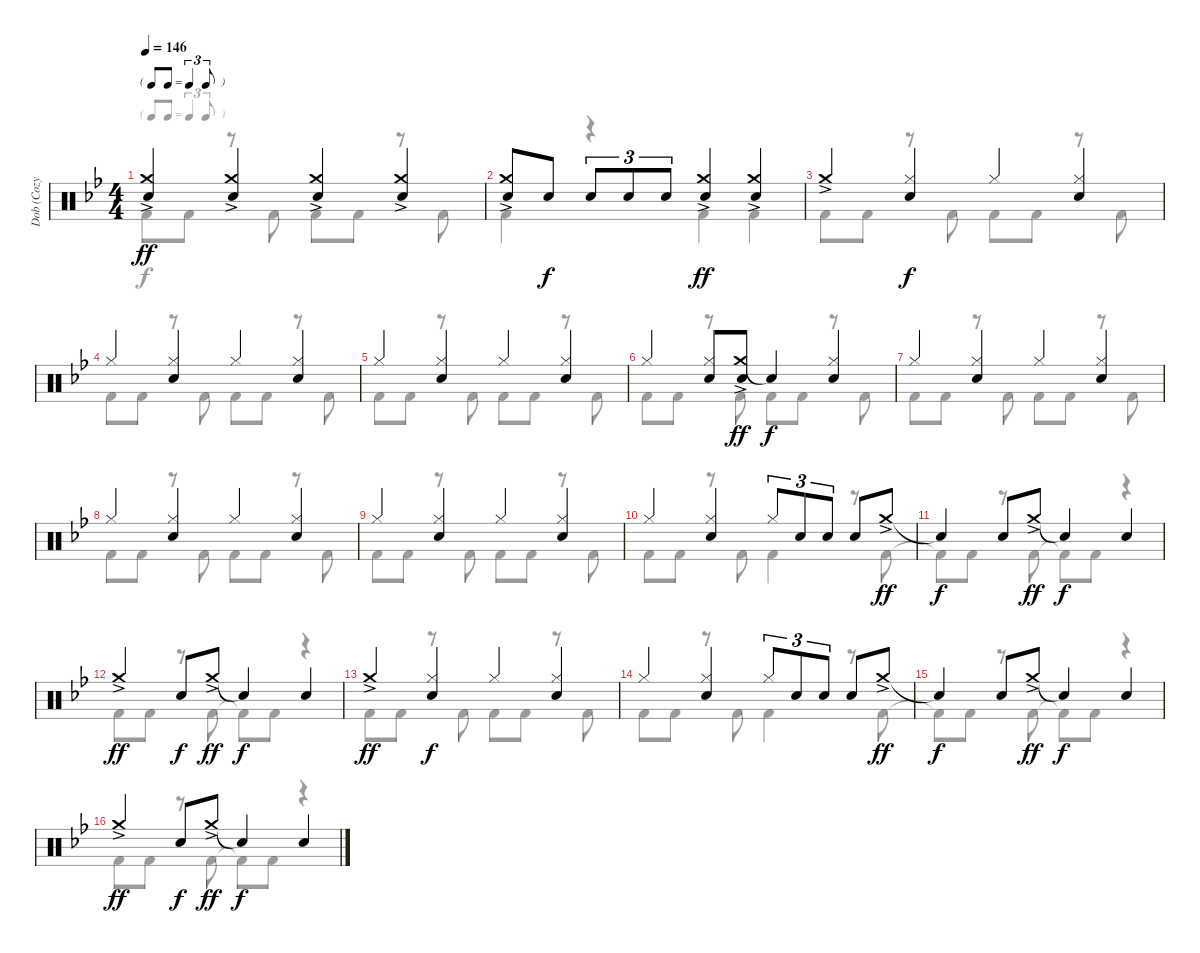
\track ("Dob (Cozy Powell)" "Dob (Cozy ") {instrument percussion}
\staff {score}
\articulation defaults
\voice
\ts (4 4)
\tf triplet8th
\tempo 146
\clef neutral
\ks bb
("Crash medium (hit)"{ac} "Electric Snare (hit)").4{dy ff} ("Crash medium (hit)"{ac} "Electric Snare (hit)").4 ("Crash medium (hit)"{ac} "Electric Snare (hit)").4 ("Crash medium (hit)"{ac} "Electric Snare (hit)").4 |
("Crash medium (hit)"{ac} "Electric Snare (hit)").8 "Electric Snare (hit)".8{dy f} "Electric Snare (hit)".8{tu (3 2)} "Electric Snare (hit)".8{tu (3 2)} "Electric Snare (hit)".8{tu (3 2)} ("Crash medium (hit)"{ac} "Electric Snare (hit)").4{dy ff} ("Crash medium (hit)"{ac} "Electric Snare (hit)").4 |
"Crash medium (hit)"{ac}.4 ("Hi-Hat (closed)" "Electric Snare (hit)").4{dy f} "Hi-Hat (closed)".4 ("Hi-Hat (closed)" "Electric Snare (hit)").4 |
"Hi-Hat (closed)".4 ("Hi-Hat (closed)" "Electric Snare (hit)").4 "Hi-Hat (closed)".4 ("Hi-Hat (closed)" "Electric Snare (hit)").4 |
"Hi-Hat (closed)".4 ("Hi-Hat (closed)" "Electric Snare (hit)").4 "Hi-Hat (closed)".4 ("Hi-Hat (closed)" "Electric Snare (hit)").4 |
"Hi-Hat (closed)".4 ("Hi-Hat (closed)" "Electric Snare (hit)").8 ("Crash medium (hit)"{ac} "Electric Snare (hit)").8{dy ff} "Snare (hit)"{t}.4{dy f} ("Hi-Hat (closed)" "Electric Snare (hit)").4 |
"Hi-Hat (closed)".4 ("Hi-Hat (closed)" "Electric Snare (hit)").4 "Hi-Hat (closed)".4 ("Hi-Hat (closed)" "Electric Snare (hit)").4 |
"Hi-Hat (closed)".4 ("Hi-Hat (closed)" "Electric Snare (hit)").4 "Hi-Hat (closed)".4 ("Hi-Hat (closed)" "Electric Snare (hit)").4 |
"Hi-Hat (closed)".4 ("Hi-Hat (closed)" "Electric Snare (hit)").4 "Hi-Hat (closed)".4 ("Hi-Hat (closed)" "Electric Snare (hit)").4 |
"Hi-Hat (closed)".4 ("Hi-Hat (closed)" "Electric Snare (hit)").4 "Hi-Hat (closed)".8{tu (3 2)} "Electric Snare (hit)".8{tu (3 2)} "Electric Snare (hit)".8{tu (3 2)} "Electric Snare (hit)".8 "Crash medium (hit)"{ac}.8{dy ff} |
"Snare (hit)"{t}.4{dy f} "Electric Snare (hit)".8 "Crash medium (hit)"{ac}.8{dy ff} "Snare (hit)"{t}.4{dy f} "Electric Snare (hit)".4 |
"Crash medium (hit)"{ac}.4{dy ff} "Electric Snare (hit)".8{dy f} "Crash medium (hit)"{ac}.8{dy ff} "Snare (hit)"{t}.4{dy f} "Electric Snare (hit)".4 |
"Crash medium (hit)"{ac}.4{dy ff} ("Hi-Hat (closed)" "Electric Snare (hit)").4{dy f} "Hi-Hat (closed)".4 ("Hi-Hat (closed)" "Electric Snare (hit)").4 |
"Hi-Hat (closed)".4 ("Hi-Hat (closed)" "Electric Snare (hit)").4 "Hi-Hat (closed)".8{tu (3 2)} "Electric Snare (hit)".8{tu (3 2)} "Electric Snare (hit)".8{tu (3 2)} "Electric Snare (hit)".8 "Crash medium (hit)"{ac}.8{dy ff} |
"Snare (hit)"{t}.4{dy f} "Electric Snare (hit)".8 "Crash medium (hit)"{ac}.8{dy ff} "Snare (hit)"{t}.4{dy f} "Electric Snare (hit)".4 |
"Crash medium (hit)"{ac}.4{dy ff} "Electric Snare (hit)".8{dy f} "Crash medium (hit)"{ac}.8{dy ff} "Snare (hit)"{t}.4{dy f} "Electric Snare (hit)".4
\voice
\clef neutral
\ottava regular
\simile none
\ks bb "Kick (hit) 2".8{dy f} "Kick (hit) 2".8
r.8 "Kick (hit) 2".8 "Kick (hit) 2".8 "Kick (hit) 2".8 r.8 "Kick (hit) 2".8 |
"Kick (hit) 2".4 r.4 "Kick (hit) 2".4 "Kick (hit) 2".4 |
"Kick (hit) 2".8 "Kick (hit) 2".8 r.8 "Kick (hit) 2".8 "Kick (hit) 2".8 "Kick (hit) 2".8 r.8 "Kick (hit) 2".8 |
"Kick (hit) 2".8 "Kick (hit) 2".8 r.8 "Kick (hit) 2".8 "Kick (hit) 2".8 "Kick (hit) 2".8 r.8 "Kick (hit) 2".8 |
"Kick (hit) 2".8 "Kick (hit) 2".8 r.8 "Kick (hit) 2".8 "Kick (hit) 2".8 "Kick (hit) 2".8 r.8 "Kick (hit) 2".8 |
"Kick (hit) 2".8 "Kick (hit) 2".8 r.8 "Kick (hit) 2".8 "Kick (hit) 2".8 "Kick (hit) 2".8 r.8 "Kick (hit) 2".8 |
"Kick (hit) 2".8 "Kick (hit) 2".8 r.8 "Kick (hit) 2".8 "Kick (hit) 2".8 "Kick (hit) 2".8 r.8 "Kick (hit) 2".8 |
"Kick (hit) 2".8 "Kick (hit) 2".8 r.8 "Kick (hit) 2".8 "Kick (hit) 2".8 "Kick (hit) 2".8 r.8 "Kick (hit) 2".8 |
"Kick (hit) 2".8 "Kick (hit) 2".8 r.8 "Kick (hit) 2".8 "Kick (hit) 2".8 "Kick (hit) 2".8 r.8 "Kick (hit) 2".8 |
"Kick (hit) 2".8 "Kick (hit) 2".8 r.8 "Kick (hit) 2".8 "Kick (hit) 2".4 r.8 "Kick (hit) 2".8 |
"Kick (hit) 2"{t}.8 "Kick (hit) 2".8 r.8 "Kick (hit) 2".8 "Kick (hit) 2"{t}.8 "Kick (hit) 2".8 r.4 |
"Kick (hit) 2".8 "Kick (hit) 2".8 r.8 "Kick (hit) 2".8 "Kick (hit) 2"{t}.8 "Kick (hit) 2".8 r.4 |
"Kick (hit) 2".8 "Kick (hit) 2".8 r.8 "Kick (hit) 2".8 "Kick (hit) 2".8 "Kick (hit) 2".8 r.8 "Kick (hit) 2".8 |
"Kick (hit) 2".8 "Kick (hit) 2".8 r.8 "Kick (hit) 2".8 "Kick (hit) 2".4 r.8 "Kick (hit) 2".8 |
"Kick (hit) 2"{t}.8 "Kick (hit) 2".8 r.8 "Kick (hit) 2".8 "Kick (hit) 2"{t}.8 "Kick (hit) 2".8 r.4 |
"Kick (hit) 2".8 "Kick (hit) 2".8 r.8 "Kick (hit) 2".8 "Kick (hit) 2"{t}.8 "Kick (hit) 2".8 r.4
